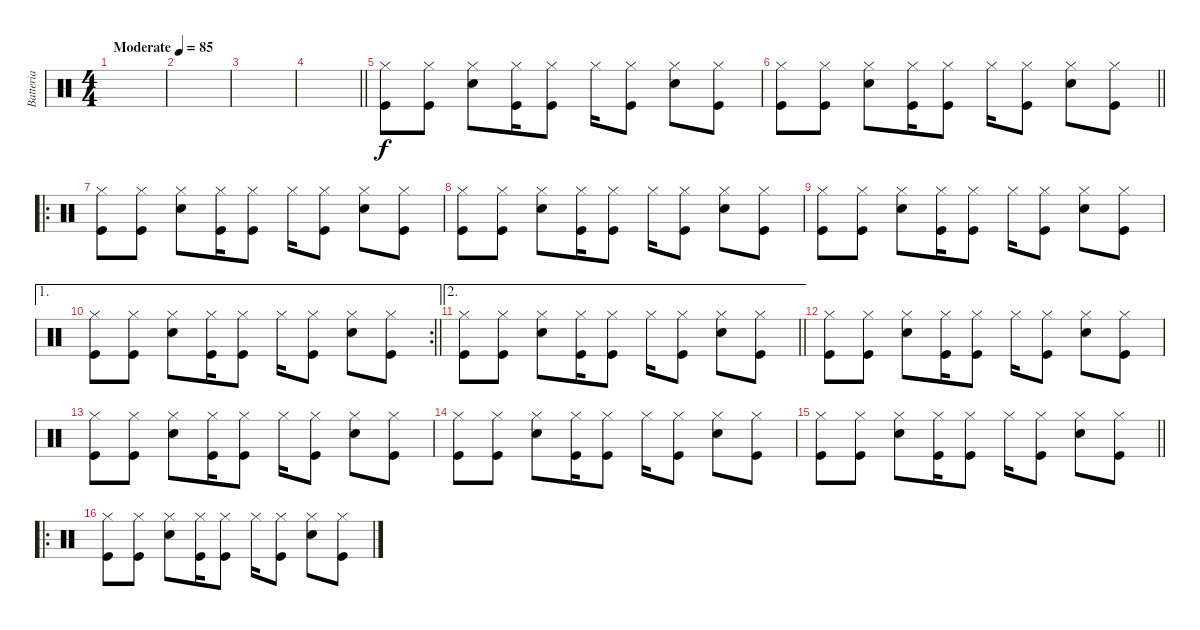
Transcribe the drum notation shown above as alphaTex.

\track ("Batteria" "Batteria") {instrument percussion}
\staff {score}
\articulation defaults
\ts (4 4)
\tempo (85 "Moderate")
\clef neutral
\ks c
|
|
|
\barLineRight lightlight
|
("Kick (hit)" "Hi-Hat (closed)").8 ("Kick (hit)" "Hi-Hat (closed)").8 ("Snare (hit) 2" "Hi-Hat (closed)").8 ("Kick (hit)" "Hi-Hat (closed)").16 ("Kick (hit)" "Hi-Hat (closed)").8 "Hi-Hat (closed)".16 ("Kick (hit)" "Hi-Hat (closed)").8 ("Snare (hit) 2" "Hi-Hat (closed)").8 ("Kick (hit)" "Hi-Hat (closed)").8 |
\barLineRight lightlight
("Kick (hit)" "Hi-Hat (closed)").8 ("Kick (hit)" "Hi-Hat (closed)").8 ("Snare (hit) 2" "Hi-Hat (closed)").8 ("Kick (hit)" "Hi-Hat (closed)").16 ("Kick (hit)" "Hi-Hat (closed)").8 "Hi-Hat (closed)".16 ("Kick (hit)" "Hi-Hat (closed)").8 ("Snare (hit) 2" "Hi-Hat (closed)").8 ("Kick (hit)" "Hi-Hat (closed)").8 |
\ro
("Kick (hit)" "Hi-Hat (closed)").8 ("Kick (hit)" "Hi-Hat (closed)").8 ("Snare (hit) 2" "Hi-Hat (closed)").8 ("Kick (hit)" "Hi-Hat (closed)").16 ("Kick (hit)" "Hi-Hat (closed)").8 "Hi-Hat (closed)".16 ("Kick (hit)" "Hi-Hat (closed)").8 ("Snare (hit) 2" "Hi-Hat (closed)").8 ("Kick (hit)" "Hi-Hat (closed)").8 |
("Kick (hit)" "Hi-Hat (closed)").8 ("Kick (hit)" "Hi-Hat (closed)").8 ("Snare (hit) 2" "Hi-Hat (closed)").8 ("Kick (hit)" "Hi-Hat (closed)").16 ("Kick (hit)" "Hi-Hat (closed)").8 "Hi-Hat (closed)".16 ("Kick (hit)" "Hi-Hat (closed)").8 ("Snare (hit) 2" "Hi-Hat (closed)").8 ("Kick (hit)" "Hi-Hat (closed)").8 |
("Kick (hit)" "Hi-Hat (closed)").8 ("Kick (hit)" "Hi-Hat (closed)").8 ("Snare (hit) 2" "Hi-Hat (closed)").8 ("Kick (hit)" "Hi-Hat (closed)").16 ("Kick (hit)" "Hi-Hat (closed)").8 "Hi-Hat (closed)".16 ("Kick (hit)" "Hi-Hat (closed)").8 ("Snare (hit) 2" "Hi-Hat (closed)").8 ("Kick (hit)" "Hi-Hat (closed)").8 |
\ae 1
\rc 2
\barLineRight lightlight
("Kick (hit)" "Hi-Hat (closed)").8 ("Kick (hit)" "Hi-Hat (closed)").8 ("Snare (hit) 2" "Hi-Hat (closed)").8 ("Kick (hit)" "Hi-Hat (closed)").16 ("Kick (hit)" "Hi-Hat (closed)").8 "Hi-Hat (closed)".16 ("Kick (hit)" "Hi-Hat (closed)").8 ("Snare (hit) 2" "Hi-Hat (closed)").8 ("Kick (hit)" "Hi-Hat (closed)").8 |
\ae 2
\barLineRight lightlight
("Kick (hit)" "Hi-Hat (closed)").8 ("Kick (hit)" "Hi-Hat (closed)").8 ("Snare (hit) 2" "Hi-Hat (closed)").8 ("Kick (hit)" "Hi-Hat (closed)").16 ("Kick (hit)" "Hi-Hat (closed)").8 "Hi-Hat (closed)".16 ("Kick (hit)" "Hi-Hat (closed)").8 ("Snare (hit) 2" "Hi-Hat (closed)").8 ("Kick (hit)" "Hi-Hat (closed)").8 |
("Kick (hit)" "Hi-Hat (closed)").8 ("Kick (hit)" "Hi-Hat (closed)").8 ("Snare (hit) 2" "Hi-Hat (closed)").8 ("Kick (hit)" "Hi-Hat (closed)").16 ("Kick (hit)" "Hi-Hat (closed)").8 "Hi-Hat (closed)".16 ("Kick (hit)" "Hi-Hat (closed)").8 ("Snare (hit) 2" "Hi-Hat (closed)").8 ("Kick (hit)" "Hi-Hat (closed)").8 |
("Kick (hit)" "Hi-Hat (closed)").8 ("Kick (hit)" "Hi-Hat (closed)").8 ("Snare (hit) 2" "Hi-Hat (closed)").8 ("Kick (hit)" "Hi-Hat (closed)").16 ("Kick (hit)" "Hi-Hat (closed)").8 "Hi-Hat (closed)".16 ("Kick (hit)" "Hi-Hat (closed)").8 ("Snare (hit) 2" "Hi-Hat (closed)").8 ("Kick (hit)" "Hi-Hat (closed)").8 |
("Kick (hit)" "Hi-Hat (closed)").8 ("Kick (hit)" "Hi-Hat (closed)").8 ("Snare (hit) 2" "Hi-Hat (closed)").8 ("Kick (hit)" "Hi-Hat (closed)").16 ("Kick (hit)" "Hi-Hat (closed)").8 "Hi-Hat (closed)".16 ("Kick (hit)" "Hi-Hat (closed)").8 ("Snare (hit) 2" "Hi-Hat (closed)").8 ("Kick (hit)" "Hi-Hat (closed)").8 |
\barLineRight lightlight
("Kick (hit)" "Hi-Hat (closed)").8 ("Kick (hit)" "Hi-Hat (closed)").8 ("Snare (hit) 2" "Hi-Hat (closed)").8 ("Kick (hit)" "Hi-Hat (closed)").16 ("Kick (hit)" "Hi-Hat (closed)").8 "Hi-Hat (closed)".16 ("Kick (hit)" "Hi-Hat (closed)").8 ("Snare (hit) 2" "Hi-Hat (closed)").8 ("Kick (hit)" "Hi-Hat (closed)").8 |
\ro
("Kick (hit)" "Hi-Hat (closed)").8 ("Kick (hit)" "Hi-Hat (closed)").8 ("Snare (hit) 2" "Hi-Hat (closed)").8 ("Kick (hit)" "Hi-Hat (closed)").16 ("Kick (hit)" "Hi-Hat (closed)").8 "Hi-Hat (closed)".16 ("Kick (hit)" "Hi-Hat (closed)").8 ("Snare (hit) 2" "Hi-Hat (closed)").8 ("Kick (hit)" "Hi-Hat (closed)").8
